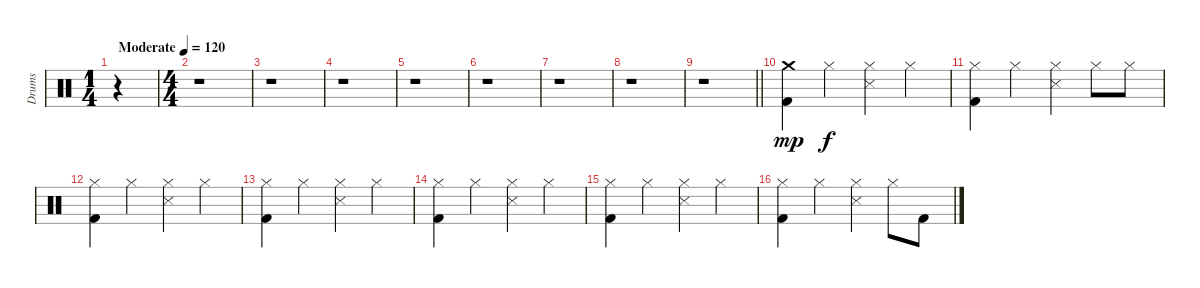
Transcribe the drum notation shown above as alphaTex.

\track ("Drums" "Drums") {instrument percussion}
\staff {score}
\articulation defaults
\ts (1 4)
\tempo (120 "Moderate")
\clef neutral
\ks c
r.4{dy mp} |
\ts (4 4)
r.1 |
r.1 |
r.1 |
r.1 |
r.1 |
r.1 |
r.1 |
\barLineRight lightlight
r.1 |
("Crash medium (hit)" "Kick (hit) 2").4 "Hi-Hat (closed)".4{dy f} ("Hi-Hat (closed)" "Snare (side stick) 3").4 "Hi-Hat (closed)".4 |
("Hi-Hat (closed)" "Kick (hit) 2").4 "Hi-Hat (closed)".4 ("Hi-Hat (closed)" "Snare (side stick) 3").4 "Hi-Hat (closed)".8 "Hi-Hat (closed)".8 |
("Hi-Hat (closed)" "Kick (hit) 2").4 "Hi-Hat (closed)".4 ("Hi-Hat (closed)" "Snare (side stick) 3").4 "Hi-Hat (closed)".4 |
("Hi-Hat (closed)" "Kick (hit) 2").4 "Hi-Hat (closed)".4 ("Hi-Hat (closed)" "Snare (side stick) 3").4 "Hi-Hat (closed)".4 |
("Hi-Hat (closed)" "Kick (hit) 2").4 "Hi-Hat (closed)".4 ("Hi-Hat (closed)" "Snare (side stick) 3").4 "Hi-Hat (closed)".4 |
("Hi-Hat (closed)" "Kick (hit) 2").4 "Hi-Hat (closed)".4 ("Hi-Hat (closed)" "Snare (side stick) 3").4 "Hi-Hat (closed)".4 |
("Hi-Hat (closed)" "Kick (hit) 2").4 "Hi-Hat (closed)".4 ("Hi-Hat (closed)" "Snare (side stick) 3").4 "Hi-Hat (closed)".8 "Kick (hit) 2".8
